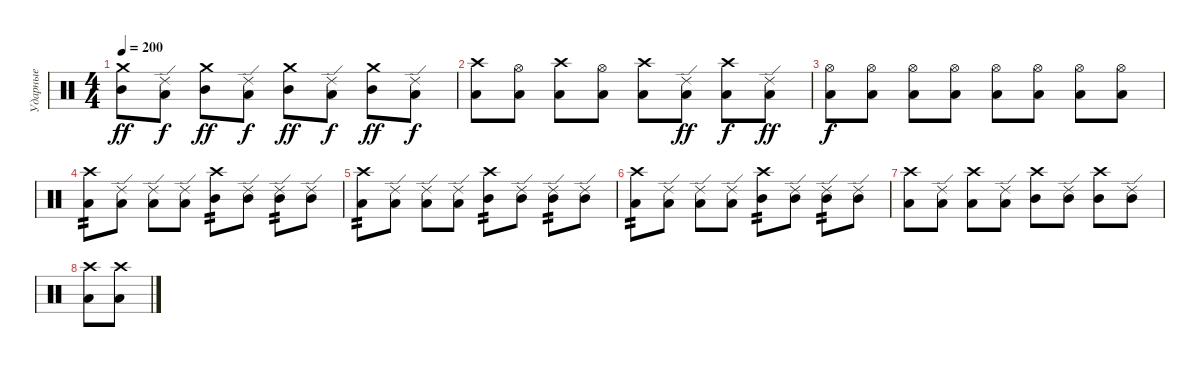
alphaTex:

\track ("Ударные" "Ударные") {instrument percussion}
\staff {score}
\articulation defaults
\ts (4 4)
\tempo 200
\clef neutral
\ks c
("Crash medium (hit)" "Mid Tom (hit)").8{dy ff} ("Ride (edge) 2" "Low Tom (hit)").8{dy f} ("Crash medium (hit)" "Mid Tom (hit)").8{dy ff} ("Ride (edge) 2" "Low Tom (hit)").8{dy f} ("Crash medium (hit)" "Mid Tom (hit)").8{dy ff} ("Ride (edge) 2" "Low Tom (hit)").8{dy f} ("Crash medium (hit)" "Mid Tom (hit)").8{dy ff} ("Ride (edge) 2" "Low Tom (hit)").8{dy f} |
("Crash high (hit)" "Low Tom (hit)").8 ("Hi-Hat (open)" "Low Floor Tom (hit)").8 ("Crash high (hit)" "Low Tom (hit)").8 ("Hi-Hat (open)" "Low Floor Tom (hit)").8 ("Crash high (hit)" "Low Tom (hit)").8 ("Ride (edge) 2" "Low Floor Tom (hit)").8{dy ff} ("Crash high (hit)" "Low Tom (hit)").8{dy f} ("Ride (edge) 2" "Low Floor Tom (hit)").8{dy ff} |
("Hi-Hat (open)" "Low Tom (hit)").8{dy f} ("Hi-Hat (open)" "Low Tom (hit)").8 ("Hi-Hat (open)" "Low Tom (hit)").8 ("Hi-Hat (open)" "Low Tom (hit)").8 ("Hi-Hat (open)" "Low Tom (hit)").8 ("Hi-Hat (open)" "Low Tom (hit)").8 ("Hi-Hat (open)" "Low Tom (hit)").8 ("Hi-Hat (open)" "Low Tom (hit)").8 |
("Crash high (hit)" "Low Tom (hit)").8{tp 2} ("Ride (edge) 2" "Low Tom (hit)").8 ("Ride (edge) 2" "Low Tom (hit)").8 ("Ride (edge) 2" "Low Tom (hit)").8 ("Crash high (hit)" "Mid Tom (hit)").8{tp 2} ("Ride (edge) 2" "Mid Tom (hit)").8 ("Ride (edge) 2" "Mid Tom (hit)").8{tp 2} ("Ride (edge) 2" "Mid Tom (hit)").8 |
("Crash high (hit)" "Low Tom (hit)").8{tp 2} ("Ride (edge) 2" "Low Tom (hit)").8 ("Ride (edge) 2" "Low Tom (hit)").8 ("Ride (edge) 2" "Low Tom (hit)").8 ("Crash high (hit)" "Mid Tom (hit)").8{tp 2} ("Ride (edge) 2" "Mid Tom (hit)").8 ("Ride (edge) 2" "Mid Tom (hit)").8{tp 2} ("Ride (edge) 2" "Mid Tom (hit)").8 |
("Crash high (hit)" "Low Tom (hit)").8{tp 2} ("Ride (edge) 2" "Low Tom (hit)").8 ("Ride (edge) 2" "Low Tom (hit)").8 ("Ride (edge) 2" "Low Tom (hit)").8 ("Crash high (hit)" "Mid Tom (hit)").8{tp 2} ("Ride (edge) 2" "Mid Tom (hit)").8 ("Ride (edge) 2" "Mid Tom (hit)").8{tp 2} ("Ride (edge) 2" "Mid Tom (hit)").8 |
("Crash high (hit)" "Low Tom (hit)").8 ("Ride (edge) 2" "Low Tom (hit)").8 ("Crash high (hit)" "Low Tom (hit)").8 ("Ride (edge) 2" "Low Tom (hit)").8 ("Crash high (hit)" "Mid Tom (hit)").8 ("Ride (edge) 2" "Mid Tom (hit)").8 ("Crash high (hit)" "Mid Tom (hit)").8 ("Ride (edge) 2" "Mid Tom (hit)").8 |
("Crash high (hit)" "Low Tom (hit)").8 ("Crash high (hit)" "Low Tom (hit)").8
